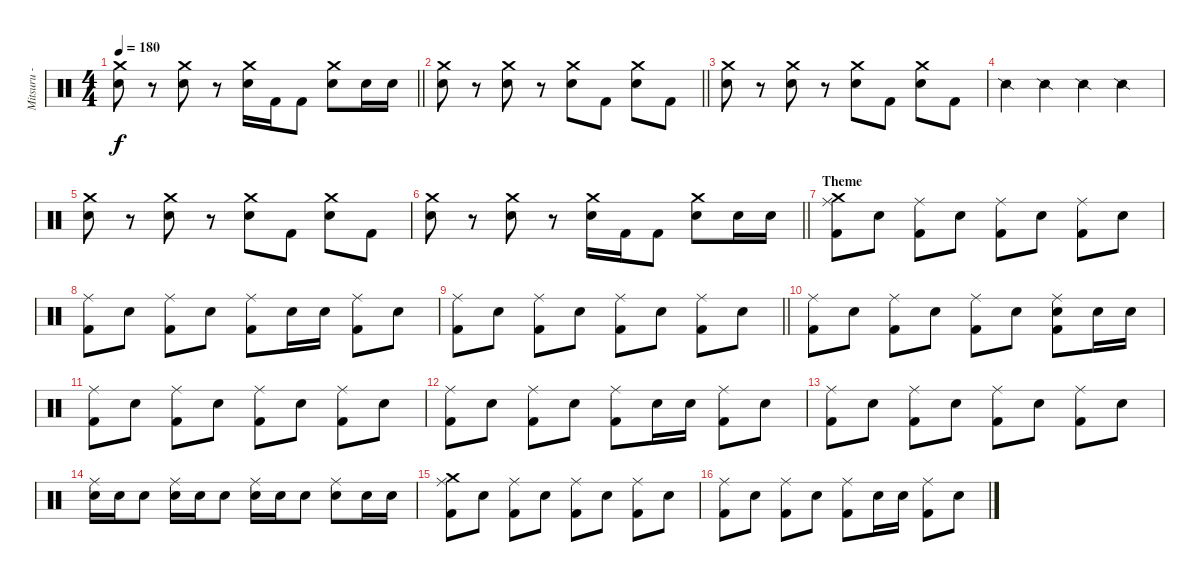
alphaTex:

\track ("Mitsuru - Batterie" "Mitsuru - ") {instrument percussion}
\staff {score}
\articulation defaults
\ts (4 4)
\tempo 180
\clef neutral
\barLineRight lightlight
\ks c
("Crash medium (hit)" "Electric Snare (hit)").8{dy f} r.8 ("Crash medium (hit)" "Electric Snare (hit)").8 r.8 ("Crash medium (hit)" "Electric Snare (hit)").16 "Kick (hit) 2".16 "Kick (hit) 2".8 ("Crash medium (hit)" "Electric Snare (hit)").8 "Electric Snare (hit)".16 "Electric Snare (hit)".16 |
\barLineRight lightlight
("Crash medium (hit)" "Electric Snare (hit)").8 r.8 ("Crash medium (hit)" "Electric Snare (hit)").8 r.8 ("Crash medium (hit)" "Electric Snare (hit)").8 "Kick (hit) 2".8 ("Crash medium (hit)" "Electric Snare (hit)").8 "Kick (hit) 2".8 |
("Crash medium (hit)" "Electric Snare (hit)").8 r.8 ("Crash medium (hit)" "Electric Snare (hit)").8 r.8 ("Crash medium (hit)" "Electric Snare (hit)").8 "Kick (hit) 2".8 ("Crash medium (hit)" "Electric Snare (hit)").8 "Kick (hit) 2".8 |
"Snare (side stick) 2".4 "Snare (side stick) 2".4 "Snare (side stick) 2".4 "Snare (side stick) 2".4 |
("Crash medium (hit)" "Electric Snare (hit)").8 r.8 ("Crash medium (hit)" "Electric Snare (hit)").8 r.8 ("Crash medium (hit)" "Electric Snare (hit)").8 "Kick (hit) 2".8 ("Crash medium (hit)" "Electric Snare (hit)").8 "Kick (hit) 2".8 |
\barLineRight lightlight
("Crash medium (hit)" "Electric Snare (hit)").8 r.8 ("Crash medium (hit)" "Electric Snare (hit)").8 r.8 ("Crash medium (hit)" "Electric Snare (hit)").16 "Kick (hit) 2".16 "Kick (hit) 2".8 ("Crash medium (hit)" "Electric Snare (hit)").8 "Electric Snare (hit)".16 "Electric Snare (hit)".16 |
\section ("" "Theme")
("Crash medium (hit)" "Ride (middle)" "Kick (hit) 2").8 "Electric Snare (hit)".8 ("Ride (middle)" "Kick (hit) 2").8 "Electric Snare (hit)".8 ("Ride (middle)" "Kick (hit) 2").8 "Electric Snare (hit)".8 ("Ride (middle)" "Kick (hit) 2").8 "Electric Snare (hit)".8 |
("Ride (middle)" "Kick (hit) 2").8 "Electric Snare (hit)".8 ("Ride (middle)" "Kick (hit) 2").8 "Electric Snare (hit)".8 ("Ride (middle)" "Kick (hit) 2").8 "Electric Snare (hit)".16 "Electric Snare (hit)".16 ("Ride (middle)" "Kick (hit) 2").8 "Electric Snare (hit)".8 |
\barLineRight lightlight
("Ride (middle)" "Kick (hit) 2").8 "Electric Snare (hit)".8 ("Ride (middle)" "Kick (hit) 2").8 "Electric Snare (hit)".8 ("Ride (middle)" "Kick (hit) 2").8 "Electric Snare (hit)".8 ("Ride (middle)" "Kick (hit) 2").8 "Electric Snare (hit)".8 |
("Ride (middle)" "Kick (hit) 2").8 "Electric Snare (hit)".8 ("Ride (middle)" "Kick (hit) 2").8 "Electric Snare (hit)".8 ("Ride (middle)" "Kick (hit) 2").8 "Electric Snare (hit)".8 ("Ride (middle)" "Electric Snare (hit)" "Kick (hit) 2").8 "Electric Snare (hit)".16 "Electric Snare (hit)".16 |
("Ride (middle)" "Kick (hit) 2").8 "Electric Snare (hit)".8 ("Ride (middle)" "Kick (hit) 2").8 "Electric Snare (hit)".8 ("Ride (middle)" "Kick (hit) 2").8 "Electric Snare (hit)".8 ("Ride (middle)" "Kick (hit) 2").8 "Electric Snare (hit)".8 |
("Ride (middle)" "Kick (hit) 2").8 "Electric Snare (hit)".8 ("Ride (middle)" "Kick (hit) 2").8 "Electric Snare (hit)".8 ("Ride (middle)" "Kick (hit) 2").8 "Electric Snare (hit)".16 "Electric Snare (hit)".16 ("Ride (middle)" "Kick (hit) 2").8 "Electric Snare (hit)".8 |
("Ride (middle)" "Kick (hit) 2").8 "Electric Snare (hit)".8 ("Ride (middle)" "Kick (hit) 2").8 "Electric Snare (hit)".8 ("Ride (middle)" "Kick (hit) 2").8 "Electric Snare (hit)".8 ("Ride (middle)" "Kick (hit) 2").8 "Electric Snare (hit)".8 |
("Ride (middle)" "Electric Snare (hit)").16 "Electric Snare (hit)".16 "Electric Snare (hit)".8 ("Ride (middle)" "Electric Snare (hit)").16 "Electric Snare (hit)".16 "Electric Snare (hit)".8 ("Ride (middle)" "Electric Snare (hit)").16 "Electric Snare (hit)".16 "Electric Snare (hit)".8 ("Ride (middle)" "Electric Snare (hit)").8 "Electric Snare (hit)".16 "Electric Snare (hit)".16 |
("Crash medium (hit)" "Ride (middle)" "Kick (hit) 2").8 "Electric Snare (hit)".8 ("Ride (middle)" "Kick (hit) 2").8 "Electric Snare (hit)".8 ("Ride (middle)" "Kick (hit) 2").8 "Electric Snare (hit)".8 ("Ride (middle)" "Kick (hit) 2").8 "Electric Snare (hit)".8 |
("Ride (middle)" "Kick (hit) 2").8 "Electric Snare (hit)".8 ("Ride (middle)" "Kick (hit) 2").8 "Electric Snare (hit)".8 ("Ride (middle)" "Kick (hit) 2").8 "Electric Snare (hit)".16 "Electric Snare (hit)".16 ("Ride (middle)" "Kick (hit) 2").8 "Electric Snare (hit)".8
